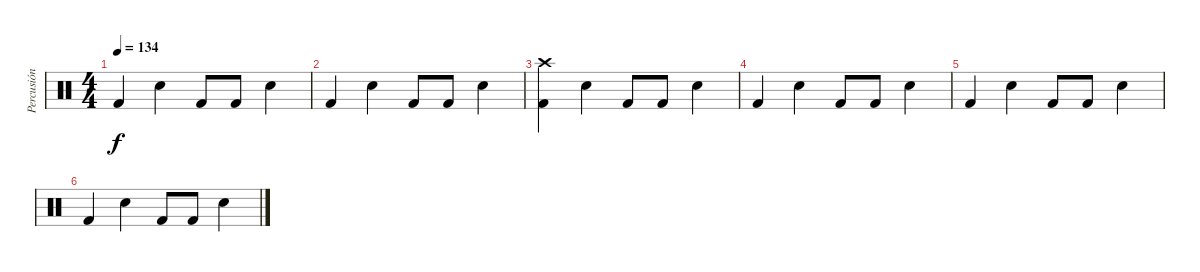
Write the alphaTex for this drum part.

\track ("Percusión" "Percusión") {instrument percussion}
\staff {score}
\articulation defaults
\ts (4 4)
\tempo 134
\clef neutral
\ks c "Kick (hit) 2".4{dy f} "Electric Snare (hit)".4 "Kick (hit) 2".8 "Kick (hit) 2".8 "Electric Snare (hit)".4
|
"Kick (hit) 2".4 "Electric Snare (hit)".4 "Kick (hit) 2".8 "Kick (hit) 2".8 "Electric Snare (hit)".4 |
("Crash high (hit)" "Kick (hit) 2").4 "Electric Snare (hit)".4 "Kick (hit) 2".8 "Kick (hit) 2".8 "Electric Snare (hit)".4 |
"Kick (hit) 2".4 "Electric Snare (hit)".4 "Kick (hit) 2".8 "Kick (hit) 2".8 "Electric Snare (hit)".4 |
"Kick (hit) 2".4 "Electric Snare (hit)".4 "Kick (hit) 2".8 "Kick (hit) 2".8 "Electric Snare (hit)".4 |
"Kick (hit) 2".4 "Electric Snare (hit)".4 "Kick (hit) 2".8 "Kick (hit) 2".8 "Electric Snare (hit)".4
